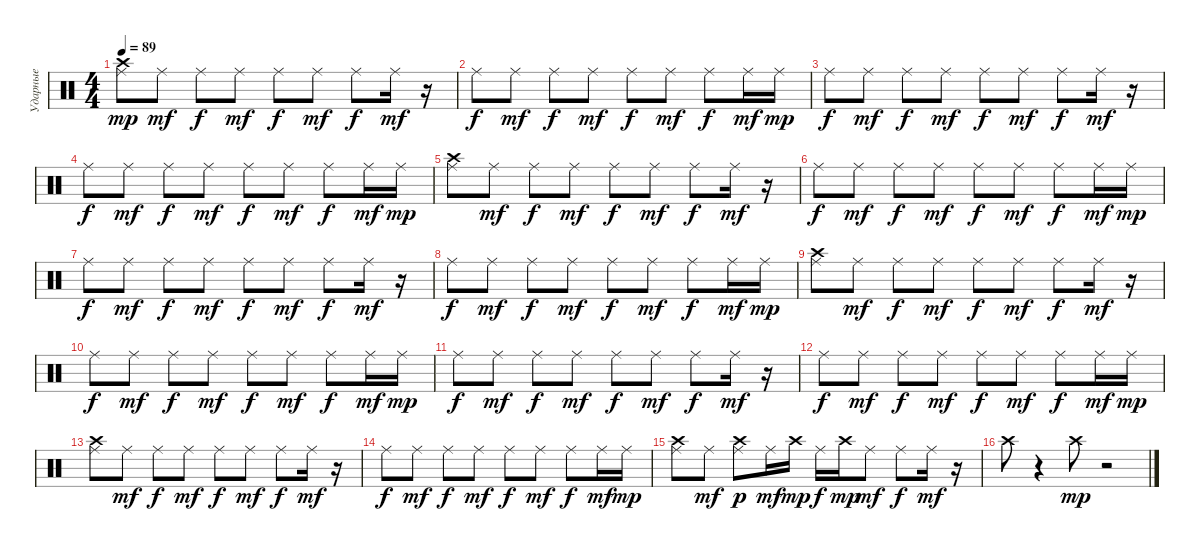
\track ("Ударные" "Ударные") {instrument percussion}
\staff {score}
\articulation defaults
\ts (4 4)
\tempo 89
\clef neutral
\ks c
("Ride (middle)" "Crash high (hit)").8{dy mp} "Ride (middle)".8{dy mf} "Ride (middle)".8{dy f} "Ride (middle)".8{dy mf} "Ride (middle)".8{dy f} "Ride (middle)".8{dy mf} "Ride (middle)".8{dy f} "Ride (middle)".16{dy mf} r.16 |
"Ride (middle)".8{dy f} "Ride (middle)".8{dy mf} "Ride (middle)".8{dy f} "Ride (middle)".8{dy mf} "Ride (middle)".8{dy f} "Ride (middle)".8{dy mf} "Ride (middle)".8{dy f} "Ride (middle)".16{dy mf} "Ride (middle)".16{dy mp} |
"Ride (middle)".8{dy f} "Ride (middle)".8{dy mf} "Ride (middle)".8{dy f} "Ride (middle)".8{dy mf} "Ride (middle)".8{dy f} "Ride (middle)".8{dy mf} "Ride (middle)".8{dy f} "Ride (middle)".16{dy mf} r.16 |
"Ride (middle)".8{dy f} "Ride (middle)".8{dy mf} "Ride (middle)".8{dy f} "Ride (middle)".8{dy mf} "Ride (middle)".8{dy f} "Ride (middle)".8{dy mf} "Ride (middle)".8{dy f} "Ride (middle)".16{dy mf} "Ride (middle)".16{dy mp} |
("Ride (middle)" "Crash high (hit)").8 "Ride (middle)".8{dy mf} "Ride (middle)".8{dy f} "Ride (middle)".8{dy mf} "Ride (middle)".8{dy f} "Ride (middle)".8{dy mf} "Ride (middle)".8{dy f} "Ride (middle)".16{dy mf} r.16 |
"Ride (middle)".8{dy f} "Ride (middle)".8{dy mf} "Ride (middle)".8{dy f} "Ride (middle)".8{dy mf} "Ride (middle)".8{dy f} "Ride (middle)".8{dy mf} "Ride (middle)".8{dy f} "Ride (middle)".16{dy mf} "Ride (middle)".16{dy mp} |
"Ride (middle)".8{dy f} "Ride (middle)".8{dy mf} "Ride (middle)".8{dy f} "Ride (middle)".8{dy mf} "Ride (middle)".8{dy f} "Ride (middle)".8{dy mf} "Ride (middle)".8{dy f} "Ride (middle)".16{dy mf} r.16 |
"Ride (middle)".8{dy f} "Ride (middle)".8{dy mf} "Ride (middle)".8{dy f} "Ride (middle)".8{dy mf} "Ride (middle)".8{dy f} "Ride (middle)".8{dy mf} "Ride (middle)".8{dy f} "Ride (middle)".16{dy mf} "Ride (middle)".16{dy mp} |
("Ride (middle)" "Crash high (hit)").8 "Ride (middle)".8{dy mf} "Ride (middle)".8{dy f} "Ride (middle)".8{dy mf} "Ride (middle)".8{dy f} "Ride (middle)".8{dy mf} "Ride (middle)".8{dy f} "Ride (middle)".16{dy mf} r.16 |
"Ride (middle)".8{dy f} "Ride (middle)".8{dy mf} "Ride (middle)".8{dy f} "Ride (middle)".8{dy mf} "Ride (middle)".8{dy f} "Ride (middle)".8{dy mf} "Ride (middle)".8{dy f} "Ride (middle)".16{dy mf} "Ride (middle)".16{dy mp} |
"Ride (middle)".8{dy f} "Ride (middle)".8{dy mf} "Ride (middle)".8{dy f} "Ride (middle)".8{dy mf} "Ride (middle)".8{dy f} "Ride (middle)".8{dy mf} "Ride (middle)".8{dy f} "Ride (middle)".16{dy mf} r.16 |
"Ride (middle)".8{dy f} "Ride (middle)".8{dy mf} "Ride (middle)".8{dy f} "Ride (middle)".8{dy mf} "Ride (middle)".8{dy f} "Ride (middle)".8{dy mf} "Ride (middle)".8{dy f} "Ride (middle)".16{dy mf} "Ride (middle)".16{dy mp} |
("Ride (middle)" "Crash high (hit)").8 "Ride (middle)".8{dy mf} "Ride (middle)".8{dy f} "Ride (middle)".8{dy mf} "Ride (middle)".8{dy f} "Ride (middle)".8{dy mf} "Ride (middle)".8{dy f} "Ride (middle)".16{dy mf} r.16 |
"Ride (middle)".8{dy f} "Ride (middle)".8{dy mf} "Ride (middle)".8{dy f} "Ride (middle)".8{dy mf} "Ride (middle)".8{dy f} "Ride (middle)".8{dy mf} "Ride (middle)".8{dy f} "Ride (middle)".16{dy mf} "Ride (middle)".16{dy mp} |
("Ride (middle)" "Crash high (hit)").8 "Ride (middle)".8{dy mf} ("Ride (middle)" "Crash high (hit)").8{dy p} "Ride (middle)".16{dy mf} "Crash high (hit)".16{dy mp} "Ride (middle)".16{dy f} "Crash high (hit)".16{dy mp} "Ride (middle)".8{dy mf} "Ride (middle)".8{dy f} "Ride (middle)".16{dy mf} r.16 |
"Crash high (hit)".8 r.4 "Crash high (hit)".8{dy mp} r.2
